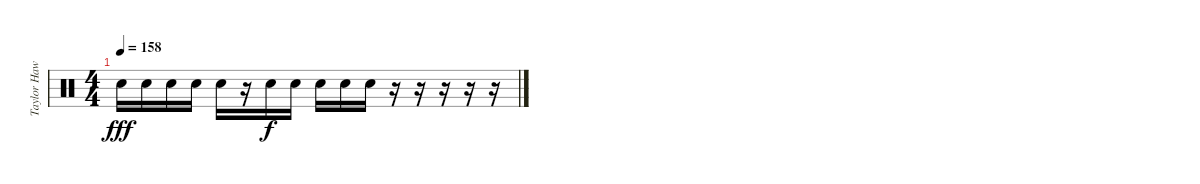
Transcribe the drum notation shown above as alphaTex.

\track ("Taylor Hawkins (Drums)" "Taylor Haw") {instrument percussion}
\staff {score}
\articulation defaults
\ts (4 4)
\tempo 158
\clef neutral
\ks c "Electric Snare (hit)".16{dy fff} "Electric Snare (hit)".16 "Electric Snare (hit)".16 "Electric Snare (hit)".16 "Electric Snare (hit)".16
r.16 "Electric Snare (hit)".16{dy f} "Electric Snare (hit)".16 "Electric Snare (hit)".16 "Electric Snare (hit)".16 "Electric Snare (hit)".16 r.16 r.16 r.16 r.16 r.16
